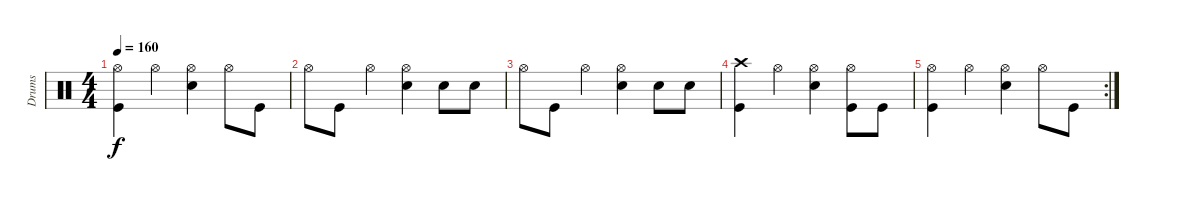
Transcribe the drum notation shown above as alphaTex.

\track ("Drums" "Drums") {instrument percussion}
\staff {score}
\articulation defaults
\ts (4 4)
\tempo 160
\clef neutral
\ks c
("Hi-Hat (open)" "Kick (hit)").4{dy f} "Hi-Hat (open)".4 ("Hi-Hat (open)" "Snare (hit) 2").4 "Hi-Hat (open)".8 "Kick (hit)".8 |
"Hi-Hat (open)".8 "Kick (hit)".8 "Hi-Hat (open)".4 ("Hi-Hat (open)" "Snare (hit) 2").4 "Snare (hit) 2".8 "Snare (hit) 2".8 |
"Hi-Hat (open)".8 "Kick (hit)".8 "Hi-Hat (open)".4 ("Hi-Hat (open)" "Snare (hit) 2").4 "Snare (hit) 2".8 "Snare (hit) 2".8 |
("Crash high (hit)" "Kick (hit)").4 "Hi-Hat (open)".4 ("Hi-Hat (open)" "Snare (hit) 2").4 ("Hi-Hat (open)" "Kick (hit)").8 "Kick (hit)".8 |
\rc 2
("Hi-Hat (open)" "Kick (hit)").4 "Hi-Hat (open)".4 ("Hi-Hat (open)" "Snare (hit) 2").4 "Hi-Hat (open)".8 "Kick (hit)".8
